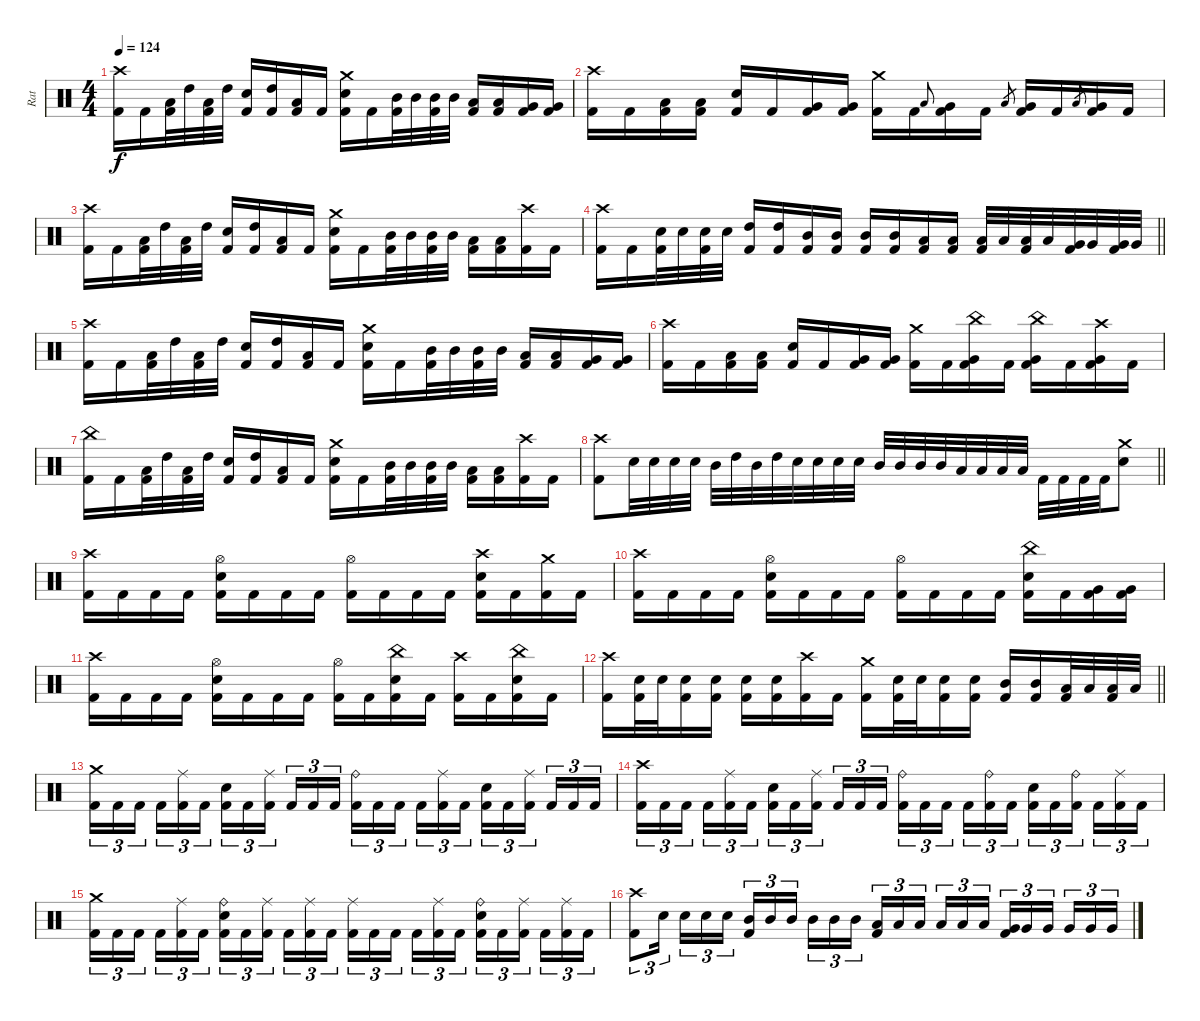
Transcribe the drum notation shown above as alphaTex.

\track ("Rat" "Rat") {instrument percussion}
\staff {score}
\articulation defaults
\ts (4 4)
\tempo 124
\clef neutral
\ks c
("Crash high (hit)" "Kick (hit) 2").16{dy f} "Kick (hit) 2".16 ("Low Tom (hit)" "Kick (hit) 2").32 "High Tom (hit)".32 ("Low Tom (hit)" "Kick (hit) 2").32 "High Tom (hit)".32 ("Electric Snare (hit)" "Kick (hit) 2").16 ("High Tom (hit)" "Kick (hit) 2").16 ("Low Tom (hit)" "Kick (hit) 2").16 "Kick (hit) 2".16 ("Crash medium (hit)" "Electric Snare (hit)" "Kick (hit) 2").16 "Kick (hit) 2".16 ("Mid Tom (hit)" "Kick (hit) 2").32 "Mid Tom (hit)".32 ("Mid Tom (hit)" "Kick (hit) 2").32 "Mid Tom (hit)".32 ("Low Tom (hit)" "Kick (hit) 2").16 ("Low Tom (hit)" "Kick (hit) 2").16 ("Very Low Tom (hit)" "Kick (hit) 2").16 ("Very Low Tom (hit)" "Kick (hit) 2").16 |
("Crash high (hit)" "Kick (hit) 2").16 "Kick (hit) 2".16 ("Low Tom (hit)" "Kick (hit) 2").16 ("Low Tom (hit)" "Kick (hit) 2").16 ("Electric Snare (hit)" "Kick (hit) 2").16 "Kick (hit) 2".16 ("Very Low Tom (hit)" "Kick (hit) 2").16 ("Very Low Tom (hit)" "Kick (hit) 2").16 ("Crash medium (hit)" "Kick (hit) 2").16 "Kick (hit) 2".16 "Low Tom (hit)".8{gr onbeat} ("Very Low Tom (hit)" "Kick (hit) 2").16 "Kick (hit) 2".16 "Low Tom (hit)".8{gr} ("Very Low Tom (hit)" "Kick (hit) 2").16 "Kick (hit) 2".16 "Low Tom (hit)".8{gr} ("Very Low Tom (hit)" "Kick (hit) 2").16 "Kick (hit) 2".16 |
("Crash high (hit)" "Kick (hit) 2").16 "Kick (hit) 2".16 ("Low Tom (hit)" "Kick (hit) 2").32 "High Tom (hit)".32 ("Low Tom (hit)" "Kick (hit) 2").32 "High Tom (hit)".32 ("Electric Snare (hit)" "Kick (hit) 2").16 ("High Tom (hit)" "Kick (hit) 2").16 ("Low Tom (hit)" "Kick (hit) 2").16 "Kick (hit) 2".16 ("Crash medium (hit)" "Electric Snare (hit)" "Kick (hit) 2").16 "Kick (hit) 2".16 ("Mid Tom (hit)" "Kick (hit) 2").32 "Mid Tom (hit)".32 ("Mid Tom (hit)" "Kick (hit) 2").32 "Mid Tom (hit)".32 ("Low Tom (hit)" "Kick (hit) 2").16 ("Low Tom (hit)" "Kick (hit) 2").16 ("Crash high (hit)" "Kick (hit) 2").16 "Kick (hit) 2".16 |
\barLineRight lightlight
("Crash high (hit)" "Kick (hit) 2").16 "Kick (hit) 2".16 ("Electric Snare (hit)" "Kick (hit) 2").32 "Electric Snare (hit)".32 ("Electric Snare (hit)" "Kick (hit) 2").32 "Electric Snare (hit)".32 ("High Tom (hit)" "Kick (hit) 2").16 ("High Tom (hit)" "Kick (hit) 2").16 ("Mid Tom (hit)" "Kick (hit) 2").16 ("Mid Tom (hit)" "Kick (hit) 2").16 ("Mid Tom (hit)" "Kick (hit) 2").16 ("Mid Tom (hit)" "Kick (hit) 2").16 ("Low Tom (hit)" "Kick (hit) 2").16 ("Low Tom (hit)" "Kick (hit) 2").16 ("Low Tom (hit)" "Kick (hit) 2").32 "Low Tom (hit)".32 ("Low Tom (hit)" "Kick (hit) 2").32 "Low Tom (hit)".32 ("Very Low Tom (hit)" "Kick (hit) 2").32 "Very Low Tom (hit)".32 ("Very Low Tom (hit)" "Kick (hit) 2").32 "Very Low Tom (hit)".32 |
("Crash high (hit)" "Kick (hit) 2").16 "Kick (hit) 2".16 ("Low Tom (hit)" "Kick (hit) 2").32 "High Tom (hit)".32 ("Low Tom (hit)" "Kick (hit) 2").32 "High Tom (hit)".32 ("Electric Snare (hit)" "Kick (hit) 2").16 ("High Tom (hit)" "Kick (hit) 2").16 ("Low Tom (hit)" "Kick (hit) 2").16 "Kick (hit) 2".16 ("Crash medium (hit)" "Electric Snare (hit)" "Kick (hit) 2").16 "Kick (hit) 2".16 ("Mid Tom (hit)" "Kick (hit) 2").32 "Mid Tom (hit)".32 ("Mid Tom (hit)" "Kick (hit) 2").32 "Mid Tom (hit)".32 ("Low Tom (hit)" "Kick (hit) 2").16 ("Low Tom (hit)" "Kick (hit) 2").16 ("Very Low Tom (hit)" "Kick (hit) 2").16 ("Very Low Tom (hit)" "Kick (hit) 2").16 |
("Crash high (hit)" "Kick (hit) 2").16 "Kick (hit) 2".16 ("Low Tom (hit)" "Kick (hit) 2").16 ("Low Tom (hit)" "Kick (hit) 2").16 ("Electric Snare (hit)" "Kick (hit) 2").16 "Kick (hit) 2".16 ("Very Low Tom (hit)" "Kick (hit) 2").16 ("Very Low Tom (hit)" "Kick (hit) 2").16 ("Crash medium (hit)" "Kick (hit) 2").16 "Kick (hit) 2".16 ("China (hit)" "Very Low Tom (hit)" "Kick (hit) 2").16 "Kick (hit) 2".16 ("China (hit)" "Very Low Tom (hit)" "Kick (hit) 2").16 "Kick (hit) 2".16 ("Crash high (hit)" "Very Low Tom (hit)" "Kick (hit) 2").16 "Kick (hit) 2".16 |
("China (hit)" "Kick (hit) 2").16 "Kick (hit) 2".16 ("Low Tom (hit)" "Kick (hit) 2").32 "High Tom (hit)".32 ("Low Tom (hit)" "Kick (hit) 2").32 "High Tom (hit)".32 ("Electric Snare (hit)" "Kick (hit) 2").16 ("High Tom (hit)" "Kick (hit) 2").16 ("Low Tom (hit)" "Kick (hit) 2").16 "Kick (hit) 2".16 ("Crash medium (hit)" "Electric Snare (hit)" "Kick (hit) 2").16 "Kick (hit) 2".16 ("Mid Tom (hit)" "Kick (hit) 2").32 "Mid Tom (hit)".32 ("Mid Tom (hit)" "Kick (hit) 2").32 "Mid Tom (hit)".32 ("Low Tom (hit)" "Kick (hit) 2").16 ("Low Tom (hit)" "Kick (hit) 2").16 ("Crash high (hit)" "Kick (hit) 2").16 "Kick (hit) 2".16 |
\barLineRight lightlight
("Crash high (hit)" "Kick (hit) 2").8 "Electric Snare (hit)".32 "Electric Snare (hit)".32 "Electric Snare (hit)".32 "Electric Snare (hit)".32 "Mid Tom (hit)".32 "High Tom (hit)".32 "Mid Tom (hit)".32 "High Tom (hit)".32 "Electric Snare (hit)".32 "Electric Snare (hit)".32 "Electric Snare (hit)".32 "Electric Snare (hit)".32 "Mid Tom (hit)".32 "Mid Tom (hit)".32 "Mid Tom (hit)".32 "Mid Tom (hit)".32 "Low Tom (hit)".32 "Low Tom (hit)".32 "Low Tom (hit)".32 "Low Tom (hit)".32 "Kick (hit) 2".32 "Kick (hit) 2".32 "Kick (hit) 2".32 "Kick (hit) 2".32 ("Crash medium (hit)" "Electric Snare (hit)").8 |
("Crash high (hit)" "Kick (hit) 2").16 "Kick (hit) 2".16 "Kick (hit) 2".16 "Kick (hit) 2".16 ("Hi-Hat (open)" "Electric Snare (hit)" "Kick (hit) 2").16 "Kick (hit) 2".16 "Kick (hit) 2".16 "Kick (hit) 2".16 ("Hi-Hat (open)" "Kick (hit) 2").16 "Kick (hit) 2".16 "Kick (hit) 2".16 "Kick (hit) 2".16 ("Crash high (hit)" "Electric Snare (hit)" "Kick (hit) 2").16 "Kick (hit) 2".16 ("Crash medium (hit)" "Kick (hit) 2").16 "Kick (hit) 2".16 |
("Crash high (hit)" "Kick (hit) 2").16 "Kick (hit) 2".16 "Kick (hit) 2".16 "Kick (hit) 2".16 ("Hi-Hat (open)" "Electric Snare (hit)" "Kick (hit) 2").16 "Kick (hit) 2".16 "Kick (hit) 2".16 "Kick (hit) 2".16 ("Hi-Hat (open)" "Kick (hit) 2").16 "Kick (hit) 2".16 "Kick (hit) 2".16 "Kick (hit) 2".16 ("China (hit)" "Electric Snare (hit)" "Kick (hit) 2").16 "Kick (hit) 2".16 ("Very Low Tom (hit)" "Kick (hit) 2").16 ("Very Low Tom (hit)" "Kick (hit) 2").16 |
("Crash high (hit)" "Kick (hit) 2").16 "Kick (hit) 2".16 "Kick (hit) 2".16 "Kick (hit) 2".16 ("Hi-Hat (open)" "Electric Snare (hit)" "Kick (hit) 2").16 "Kick (hit) 2".16 "Kick (hit) 2".16 "Kick (hit) 2".16 ("Hi-Hat (open)" "Kick (hit) 2").16 "Kick (hit) 2".16 ("China (hit)" "Electric Snare (hit)" "Kick (hit) 2").16 "Kick (hit) 2".16 ("Crash high (hit)" "Kick (hit) 2").16 "Kick (hit) 2".16 ("China (hit)" "Electric Snare (hit)" "Kick (hit) 2").16 "Kick (hit) 2".16 |
\barLineRight lightlight
("Crash high (hit)" "Kick (hit) 2").16 ("Electric Snare (hit)" "Kick (hit) 2").32 "Electric Snare (hit)".32 ("Electric Snare (hit)" "Kick (hit) 2").16 ("Electric Snare (hit)" "Kick (hit) 2").16 ("Electric Snare (hit)" "Kick (hit) 2").16 ("Electric Snare (hit)" "Kick (hit) 2").16 ("Crash high (hit)" "Kick (hit) 2").16 "Kick (hit) 2".16 ("Crash medium (hit)" "Kick (hit) 2").16 ("Electric Snare (hit)" "Kick (hit) 2").32 "Electric Snare (hit)".32 ("Electric Snare (hit)" "Kick (hit) 2").16 ("Electric Snare (hit)" "Kick (hit) 2").16 ("Mid Tom (hit)" "Kick (hit) 2").16 ("Mid Tom (hit)" "Kick (hit) 2").16 ("Low Tom (hit)" "Kick (hit) 2").32 "Low Tom (hit)".32 ("Low Tom (hit)" "Kick (hit) 2").32 "Low Tom (hit)".32 |
("Crash medium (hit)" "Kick (hit) 2").16{tu (3 2) volume 0} "Kick (hit) 2".16{tu (3 2)} "Kick (hit) 2".16{tu (3 2) beam splitsecondary} "Kick (hit) 2".16{tu (3 2)} ("Ride (middle)" "Kick (hit) 2").16{tu (3 2)} "Kick (hit) 2".16{tu (3 2)} ("Electric Snare (hit)" "Kick (hit) 2").16{tu (3 2)} "Kick (hit) 2".16{tu (3 2)} ("Ride (middle)" "Kick (hit) 2").16{tu (3 2) beam splitsecondary} "Kick (hit) 2".16{tu (3 2)} "Kick (hit) 2".16{tu (3 2)} "Kick (hit) 2".16{tu (3 2)} ("Ride (bell)" "Kick (hit) 2").16{tu (3 2)} "Kick (hit) 2".16{tu (3 2)} "Kick (hit) 2".16{tu (3 2) beam splitsecondary} "Kick (hit) 2".16{tu (3 2)} ("Ride (middle)" "Kick (hit) 2").16{tu (3 2)} "Kick (hit) 2".16{tu (3 2)} ("Electric Snare (hit)" "Kick (hit) 2").16{tu (3 2)} "Kick (hit) 2".16{tu (3 2)} ("Ride (middle)" "Kick (hit) 2").16{tu (3 2) beam splitsecondary} "Kick (hit) 2".16{tu (3 2)} "Kick (hit) 2".16{tu (3 2)} "Kick (hit) 2".16{tu (3 2)} |
("Crash high (hit)" "Kick (hit) 2").16{tu (3 2)} "Kick (hit) 2".16{tu (3 2)} "Kick (hit) 2".16{tu (3 2) beam splitsecondary} "Kick (hit) 2".16{tu (3 2)} ("Ride (middle)" "Kick (hit) 2").16{tu (3 2)} "Kick (hit) 2".16{tu (3 2)} ("Electric Snare (hit)" "Kick (hit) 2").16{tu (3 2)} "Kick (hit) 2".16{tu (3 2)} ("Ride (middle)" "Kick (hit) 2").16{tu (3 2) beam splitsecondary} "Kick (hit) 2".16{tu (3 2)} "Kick (hit) 2".16{tu (3 2)} "Kick (hit) 2".16{tu (3 2)} ("Ride (bell)" "Kick (hit) 2").16{tu (3 2)} "Kick (hit) 2".16{tu (3 2)} "Kick (hit) 2".16{tu (3 2) beam splitsecondary} "Kick (hit) 2".16{tu (3 2)} ("Ride (bell)" "Kick (hit) 2").16{tu (3 2)} "Kick (hit) 2".16{tu (3 2)} ("Electric Snare (hit)" "Kick (hit) 2").16{tu (3 2)} "Kick (hit) 2".16{tu (3 2)} ("Ride (bell)" "Kick (hit) 2").16{tu (3 2) beam splitsecondary} "Kick (hit) 2".16{tu (3 2)} ("Ride (middle)" "Kick (hit) 2").16{tu (3 2)} "Kick (hit) 2".16{tu (3 2)} |
("Crash medium (hit)" "Kick (hit) 2").16{tu (3 2)} "Kick (hit) 2".16{tu (3 2)} "Kick (hit) 2".16{tu (3 2) beam splitsecondary} "Kick (hit) 2".16{tu (3 2)} ("Ride (middle)" "Kick (hit) 2").16{tu (3 2)} "Kick (hit) 2".16{tu (3 2)} ("Ride (bell)" "Electric Snare (hit)" "Kick (hit) 2").16{tu (3 2)} "Kick (hit) 2".16{tu (3 2)} ("Ride (middle)" "Kick (hit) 2").16{tu (3 2) beam splitsecondary} "Kick (hit) 2".16{tu (3 2)} ("Ride (middle)" "Kick (hit) 2").16{tu (3 2)} "Kick (hit) 2".16{tu (3 2)} ("Ride (middle)" "Kick (hit) 2").16{tu (3 2)} "Kick (hit) 2".16{tu (3 2)} "Kick (hit) 2".16{tu (3 2) beam splitsecondary} "Kick (hit) 2".16{tu (3 2)} ("Ride (middle)" "Kick (hit) 2").16{tu (3 2)} "Kick (hit) 2".16{tu (3 2)} ("Ride (bell)" "Electric Snare (hit)" "Kick (hit) 2").16{tu (3 2)} "Kick (hit) 2".16{tu (3 2)} ("Ride (middle)" "Kick (hit) 2").16{tu (3 2) beam splitsecondary} "Kick (hit) 2".16{tu (3 2)} ("Ride (middle)" "Kick (hit) 2").16{tu (3 2)} "Kick (hit) 2".16{tu (3 2)} |
("Crash high (hit)" "Kick (hit) 2").8{tu (3 2)} "Electric Snare (hit)".16{tu (3 2) beam splitsecondary} "Electric Snare (hit)".16{tu (3 2)} "Electric Snare (hit)".16{tu (3 2)} "Electric Snare (hit)".16{tu (3 2)} ("Mid Tom (hit)" "Kick (hit) 2").16{tu (3 2)} "Mid Tom (hit)".16{tu (3 2)} "Mid Tom (hit)".16{tu (3 2) beam splitsecondary} "Mid Tom (hit)".16{tu (3 2)} "Mid Tom (hit)".16{tu (3 2)} "Mid Tom (hit)".16{tu (3 2)} ("Low Tom (hit)" "Kick (hit) 2").16{tu (3 2)} "Low Tom (hit)".16{tu (3 2)} "Low Tom (hit)".16{tu (3 2) beam splitsecondary} "Low Tom (hit)".16{tu (3 2)} "Low Tom (hit)".16{tu (3 2)} "Low Tom (hit)".16{tu (3 2)} ("Very Low Tom (hit)" "Kick (hit) 2").16{tu (3 2)} "Very Low Tom (hit)".16{tu (3 2)} "Very Low Tom (hit)".16{tu (3 2) beam splitsecondary} "Very Low Tom (hit)".16{tu (3 2)} "Very Low Tom (hit)".16{tu (3 2)} "Very Low Tom (hit)".16{tu (3 2)}
